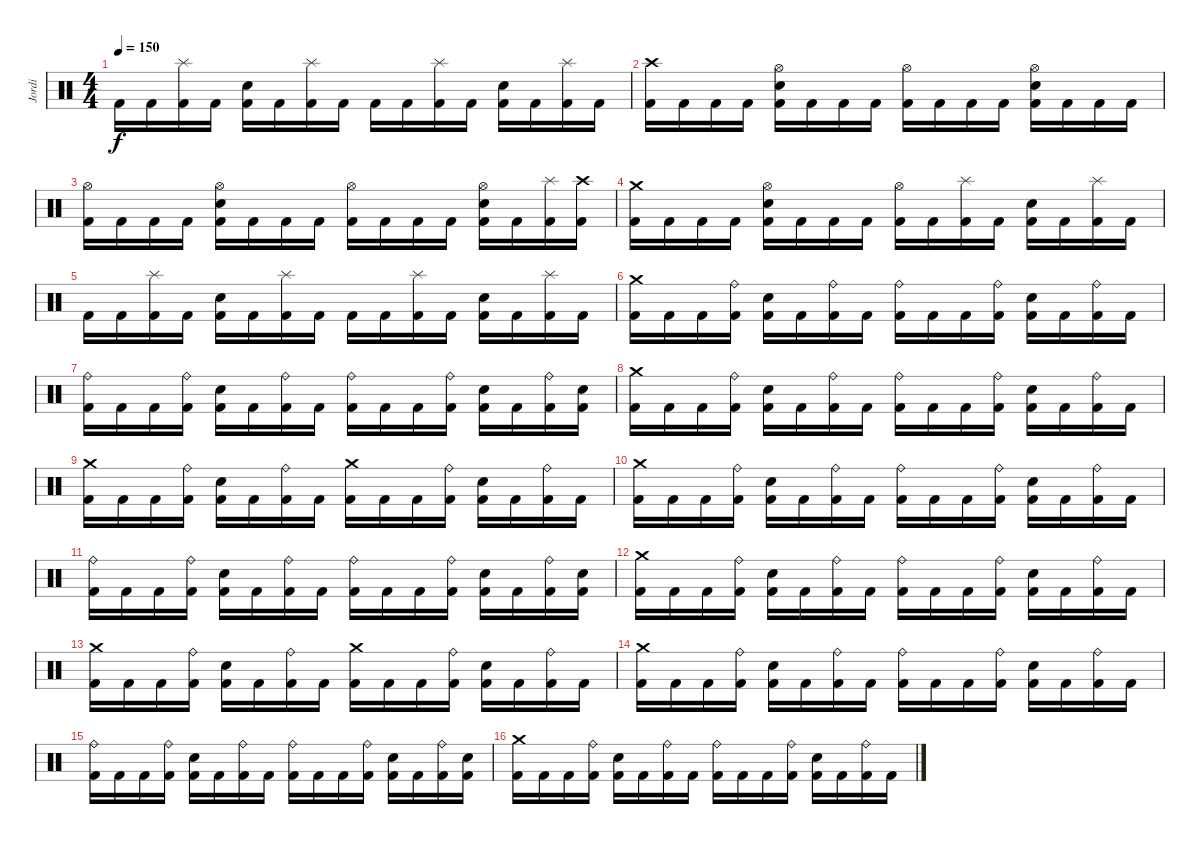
\track ("Jordi" "Jordi") {instrument percussion}
\staff {score}
\articulation defaults
\ts (4 4)
\tempo 150
\clef neutral
\ks c "Kick (hit) 2".16{dy f} "Kick (hit) 2".16
("Splash (hit)" "Kick (hit) 2").16 "Kick (hit) 2".16 ("Snare (hit) 2" "Kick (hit) 2").16 "Kick (hit) 2".16 ("Splash (hit)" "Kick (hit) 2").16 "Kick (hit) 2".16 "Kick (hit) 2".16 "Kick (hit) 2".16 ("Splash (hit)" "Kick (hit) 2").16 "Kick (hit) 2".16 ("Snare (hit) 2" "Kick (hit) 2").16 "Kick (hit) 2".16 ("Splash (hit)" "Kick (hit) 2").16 "Kick (hit) 2".16 |
("Crash high (hit)" "Kick (hit) 2").16 "Kick (hit) 2".16 "Kick (hit) 2".16 "Kick (hit) 2".16 ("Hi-Hat (open)" "Snare (hit) 2" "Kick (hit) 2").16 "Kick (hit) 2".16 "Kick (hit) 2".16 "Kick (hit) 2".16 ("Hi-Hat (open)" "Kick (hit) 2").16 "Kick (hit) 2".16 "Kick (hit) 2".16 "Kick (hit) 2".16 ("Hi-Hat (open)" "Snare (hit) 2" "Kick (hit) 2").16 "Kick (hit) 2".16 "Kick (hit) 2".16 "Kick (hit) 2".16 |
("Hi-Hat (open)" "Kick (hit) 2").16 "Kick (hit) 2".16 "Kick (hit) 2".16 "Kick (hit) 2".16 ("Hi-Hat (open)" "Snare (hit) 2" "Kick (hit) 2").16 "Kick (hit) 2".16 "Kick (hit) 2".16 "Kick (hit) 2".16 ("Hi-Hat (open)" "Kick (hit) 2").16 "Kick (hit) 2".16 "Kick (hit) 2".16 "Kick (hit) 2".16 ("Hi-Hat (open)" "Snare (hit) 2" "Kick (hit) 2").16 "Kick (hit) 2".16 ("Splash (hit)" "Kick (hit) 2").16 ("Crash high (hit)" "Kick (hit) 2").16 |
("Crash medium (hit)" "Kick (hit) 2").16 "Kick (hit) 2".16 "Kick (hit) 2".16 "Kick (hit) 2".16 ("Hi-Hat (open)" "Snare (hit) 2" "Kick (hit) 2").16 "Kick (hit) 2".16 "Kick (hit) 2".16 "Kick (hit) 2".16 ("Hi-Hat (open)" "Kick (hit) 2").16 "Kick (hit) 2".16 ("Splash (hit)" "Kick (hit) 2").16 "Kick (hit) 2".16 ("Snare (hit) 2" "Kick (hit) 2").16 "Kick (hit) 2".16 ("Splash (hit)" "Kick (hit) 2").16 "Kick (hit) 2".16 |
"Kick (hit) 2".16 "Kick (hit) 2".16 ("Splash (hit)" "Kick (hit) 2").16 "Kick (hit) 2".16 ("Snare (hit) 2" "Kick (hit) 2").16 "Kick (hit) 2".16 ("Splash (hit)" "Kick (hit) 2").16 "Kick (hit) 2".16 "Kick (hit) 2".16 "Kick (hit) 2".16 ("Splash (hit)" "Kick (hit) 2").16 "Kick (hit) 2".16 ("Snare (hit) 2" "Kick (hit) 2").16 "Kick (hit) 2".16 ("Splash (hit)" "Kick (hit) 2").16 "Kick (hit) 2".16 |
("Crash medium (hit)" "Kick (hit) 2").16 "Kick (hit) 2".16 "Kick (hit) 2".16 ("Ride (bell)" "Kick (hit) 2").16 ("Snare (hit) 2" "Kick (hit) 2").16 "Kick (hit) 2".16 ("Ride (bell)" "Kick (hit) 2").16 "Kick (hit) 2".16 ("Ride (bell)" "Kick (hit) 2").16 "Kick (hit) 2".16 "Kick (hit) 2".16 ("Ride (bell)" "Kick (hit) 2").16 ("Snare (hit) 2" "Kick (hit) 2").16 "Kick (hit) 2".16 ("Ride (bell)" "Kick (hit) 2").16 "Kick (hit) 2".16 |
("Ride (bell)" "Kick (hit) 2").16 "Kick (hit) 2".16 "Kick (hit) 2".16 ("Ride (bell)" "Kick (hit) 2").16 ("Snare (hit) 2" "Kick (hit) 2").16 "Kick (hit) 2".16 ("Ride (bell)" "Kick (hit) 2").16 "Kick (hit) 2".16 ("Ride (bell)" "Kick (hit) 2").16 "Kick (hit) 2".16 "Kick (hit) 2".16 ("Ride (bell)" "Kick (hit) 2").16 ("Snare (hit) 2" "Kick (hit) 2").16 "Kick (hit) 2".16 ("Ride (bell)" "Kick (hit) 2").16 ("Snare (hit) 2" "Kick (hit) 2").16 |
("Crash medium (hit)" "Kick (hit) 2").16 "Kick (hit) 2".16 "Kick (hit) 2".16 ("Ride (bell)" "Kick (hit) 2").16 ("Snare (hit) 2" "Kick (hit) 2").16 "Kick (hit) 2".16 ("Ride (bell)" "Kick (hit) 2").16 "Kick (hit) 2".16 ("Ride (bell)" "Kick (hit) 2").16 "Kick (hit) 2".16 "Kick (hit) 2".16 ("Ride (bell)" "Kick (hit) 2").16 ("Snare (hit) 2" "Kick (hit) 2").16 "Kick (hit) 2".16 ("Ride (bell)" "Kick (hit) 2").16 "Kick (hit) 2".16 |
("Crash medium (hit)" "Kick (hit) 2").16 "Kick (hit) 2".16 "Kick (hit) 2".16 ("Ride (bell)" "Kick (hit) 2").16 ("Snare (hit) 2" "Kick (hit) 2").16 "Kick (hit) 2".16 ("Ride (bell)" "Kick (hit) 2").16 "Kick (hit) 2".16 ("Crash medium (hit)" "Kick (hit) 2").16 "Kick (hit) 2".16 "Kick (hit) 2".16 ("Ride (bell)" "Kick (hit) 2").16 ("Snare (hit) 2" "Kick (hit) 2").16 "Kick (hit) 2".16 ("Ride (bell)" "Kick (hit) 2").16 "Kick (hit) 2".16 |
("Crash medium (hit)" "Kick (hit) 2").16 "Kick (hit) 2".16 "Kick (hit) 2".16 ("Ride (bell)" "Kick (hit) 2").16 ("Snare (hit) 2" "Kick (hit) 2").16 "Kick (hit) 2".16 ("Ride (bell)" "Kick (hit) 2").16 "Kick (hit) 2".16 ("Ride (bell)" "Kick (hit) 2").16 "Kick (hit) 2".16 "Kick (hit) 2".16 ("Ride (bell)" "Kick (hit) 2").16 ("Snare (hit) 2" "Kick (hit) 2").16 "Kick (hit) 2".16 ("Ride (bell)" "Kick (hit) 2").16 "Kick (hit) 2".16 |
("Ride (bell)" "Kick (hit) 2").16 "Kick (hit) 2".16 "Kick (hit) 2".16 ("Ride (bell)" "Kick (hit) 2").16 ("Snare (hit) 2" "Kick (hit) 2").16 "Kick (hit) 2".16 ("Ride (bell)" "Kick (hit) 2").16 "Kick (hit) 2".16 ("Ride (bell)" "Kick (hit) 2").16 "Kick (hit) 2".16 "Kick (hit) 2".16 ("Ride (bell)" "Kick (hit) 2").16 ("Snare (hit) 2" "Kick (hit) 2").16 "Kick (hit) 2".16 ("Ride (bell)" "Kick (hit) 2").16 ("Snare (hit) 2" "Kick (hit) 2").16 |
("Crash medium (hit)" "Kick (hit) 2").16 "Kick (hit) 2".16 "Kick (hit) 2".16 ("Ride (bell)" "Kick (hit) 2").16 ("Snare (hit) 2" "Kick (hit) 2").16 "Kick (hit) 2".16 ("Ride (bell)" "Kick (hit) 2").16 "Kick (hit) 2".16 ("Ride (bell)" "Kick (hit) 2").16 "Kick (hit) 2".16 "Kick (hit) 2".16 ("Ride (bell)" "Kick (hit) 2").16 ("Snare (hit) 2" "Kick (hit) 2").16 "Kick (hit) 2".16 ("Ride (bell)" "Kick (hit) 2").16 "Kick (hit) 2".16 |
("Crash medium (hit)" "Kick (hit) 2").16 "Kick (hit) 2".16 "Kick (hit) 2".16 ("Ride (bell)" "Kick (hit) 2").16 ("Snare (hit) 2" "Kick (hit) 2").16 "Kick (hit) 2".16 ("Ride (bell)" "Kick (hit) 2").16 "Kick (hit) 2".16 ("Crash medium (hit)" "Kick (hit) 2").16 "Kick (hit) 2".16 "Kick (hit) 2".16 ("Ride (bell)" "Kick (hit) 2").16 ("Snare (hit) 2" "Kick (hit) 2").16 "Kick (hit) 2".16 ("Ride (bell)" "Kick (hit) 2").16 "Kick (hit) 2".16 |
("Crash medium (hit)" "Kick (hit) 2").16{volume 10} "Kick (hit) 2".16 "Kick (hit) 2".16 ("Ride (bell)" "Kick (hit) 2").16 ("Snare (hit) 2" "Kick (hit) 2").16 "Kick (hit) 2".16 ("Ride (bell)" "Kick (hit) 2").16 "Kick (hit) 2".16 ("Ride (bell)" "Kick (hit) 2").16 "Kick (hit) 2".16 "Kick (hit) 2".16 ("Ride (bell)" "Kick (hit) 2").16 ("Snare (hit) 2" "Kick (hit) 2").16 "Kick (hit) 2".16 ("Ride (bell)" "Kick (hit) 2").16 "Kick (hit) 2".16 |
("Ride (bell)" "Kick (hit) 2").16 "Kick (hit) 2".16 "Kick (hit) 2".16 ("Ride (bell)" "Kick (hit) 2").16 ("Snare (hit) 2" "Kick (hit) 2").16 "Kick (hit) 2".16 ("Ride (bell)" "Kick (hit) 2").16 "Kick (hit) 2".16 ("Ride (bell)" "Kick (hit) 2").16 "Kick (hit) 2".16 "Kick (hit) 2".16 ("Ride (bell)" "Kick (hit) 2").16 ("Snare (hit) 2" "Kick (hit) 2").16 "Kick (hit) 2".16 ("Ride (bell)" "Kick (hit) 2").16 ("Snare (hit) 2" "Kick (hit) 2").16 |
("Crash medium (hit)" "Kick (hit) 2").16 "Kick (hit) 2".16 "Kick (hit) 2".16 ("Ride (bell)" "Kick (hit) 2").16 ("Snare (hit) 2" "Kick (hit) 2").16 "Kick (hit) 2".16 ("Ride (bell)" "Kick (hit) 2").16 "Kick (hit) 2".16 ("Ride (bell)" "Kick (hit) 2").16 "Kick (hit) 2".16 "Kick (hit) 2".16 ("Ride (bell)" "Kick (hit) 2").16 ("Snare (hit) 2" "Kick (hit) 2").16 "Kick (hit) 2".16 ("Ride (bell)" "Kick (hit) 2").16 "Kick (hit) 2".16
